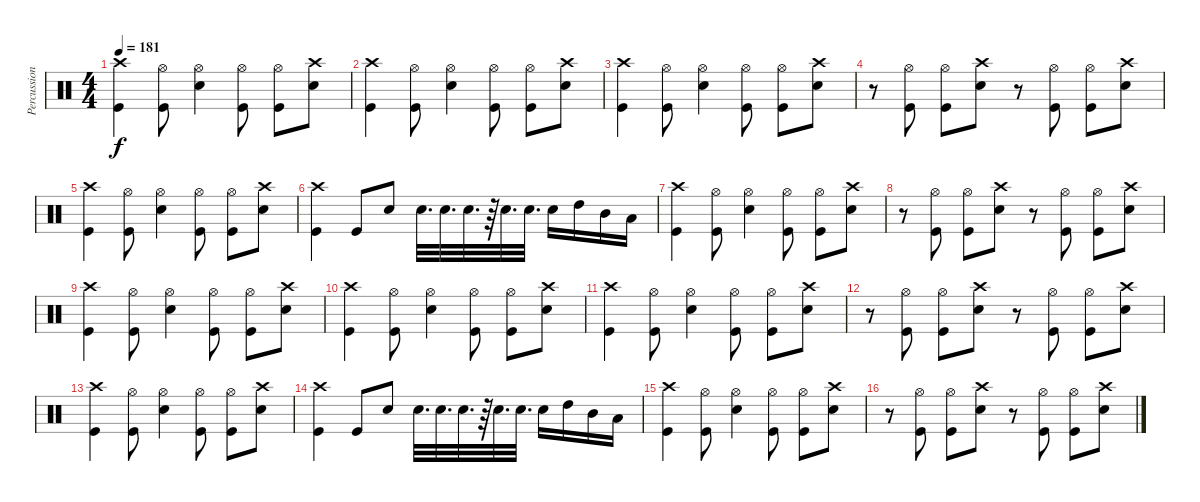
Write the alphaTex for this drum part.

\track ("Percussion" "Percussion") {instrument percussion}
\staff {score}
\articulation defaults
\ts (4 4)
\tempo 181
\clef neutral
\ks c
("Crash high (hit)" "Kick (hit)").4{dy f} ("Hi-Hat (open)" "Kick (hit)").8 ("Hi-Hat (open)" "Electric Snare (hit)").4 ("Hi-Hat (open)" "Kick (hit)").8 ("Hi-Hat (open)" "Kick (hit)").8 ("Crash high (hit)" "Electric Snare (hit)").8 |
("Crash high (hit)" "Kick (hit)").4 ("Hi-Hat (open)" "Kick (hit)").8 ("Hi-Hat (open)" "Electric Snare (hit)").4 ("Hi-Hat (open)" "Kick (hit)").8 ("Hi-Hat (open)" "Kick (hit)").8 ("Crash high (hit)" "Electric Snare (hit)").8 |
("Crash high (hit)" "Kick (hit)").4 ("Hi-Hat (open)" "Kick (hit)").8 ("Hi-Hat (open)" "Electric Snare (hit)").4 ("Hi-Hat (open)" "Kick (hit)").8 ("Hi-Hat (open)" "Kick (hit)").8 ("Crash high (hit)" "Electric Snare (hit)").8 |
r.8 ("Hi-Hat (open)" "Kick (hit)").8 ("Hi-Hat (open)" "Kick (hit)").8 ("Crash high (hit)" "Electric Snare (hit)").8 r.8 ("Hi-Hat (open)" "Kick (hit)").8 ("Hi-Hat (open)" "Kick (hit)").8 ("Crash high (hit)" "Electric Snare (hit)").8 |
("Crash high (hit)" "Kick (hit)").4 ("Hi-Hat (open)" "Kick (hit)").8 ("Hi-Hat (open)" "Electric Snare (hit)").4 ("Hi-Hat (open)" "Kick (hit)").8 ("Hi-Hat (open)" "Kick (hit)").8 ("Crash high (hit)" "Electric Snare (hit)").8 |
("Crash high (hit)" "Kick (hit)").4 "Kick (hit)".8 "Electric Snare (hit)".8 "Electric Snare (hit)".32{d} "Electric Snare (hit)".32{d} "Electric Snare (hit)".32{d} r.64 "Electric Snare (hit)".32{d} "Electric Snare (hit)".32{d} "Electric Snare (hit)".16 "High Tom (hit)".16 "Mid Tom (hit)".16 "Low Tom (hit)".16 |
("Crash high (hit)" "Kick (hit)").4 ("Hi-Hat (open)" "Kick (hit)").8 ("Hi-Hat (open)" "Electric Snare (hit)").4 ("Hi-Hat (open)" "Kick (hit)").8 ("Hi-Hat (open)" "Kick (hit)").8 ("Crash high (hit)" "Electric Snare (hit)").8 |
r.8 ("Hi-Hat (open)" "Kick (hit)").8 ("Hi-Hat (open)" "Kick (hit)").8 ("Crash high (hit)" "Electric Snare (hit)").8 r.8 ("Hi-Hat (open)" "Kick (hit)").8 ("Hi-Hat (open)" "Kick (hit)").8 ("Crash high (hit)" "Electric Snare (hit)").8 |
("Crash high (hit)" "Kick (hit)").4 ("Hi-Hat (open)" "Kick (hit)").8 ("Hi-Hat (open)" "Electric Snare (hit)").4 ("Hi-Hat (open)" "Kick (hit)").8 ("Hi-Hat (open)" "Kick (hit)").8 ("Crash high (hit)" "Electric Snare (hit)").8 |
("Crash high (hit)" "Kick (hit)").4 ("Hi-Hat (open)" "Kick (hit)").8 ("Hi-Hat (open)" "Electric Snare (hit)").4 ("Hi-Hat (open)" "Kick (hit)").8 ("Hi-Hat (open)" "Kick (hit)").8 ("Crash high (hit)" "Electric Snare (hit)").8 |
("Crash high (hit)" "Kick (hit)").4 ("Hi-Hat (open)" "Kick (hit)").8 ("Hi-Hat (open)" "Electric Snare (hit)").4 ("Hi-Hat (open)" "Kick (hit)").8 ("Hi-Hat (open)" "Kick (hit)").8 ("Crash high (hit)" "Electric Snare (hit)").8 |
r.8 ("Hi-Hat (open)" "Kick (hit)").8 ("Hi-Hat (open)" "Kick (hit)").8 ("Crash high (hit)" "Electric Snare (hit)").8 r.8 ("Hi-Hat (open)" "Kick (hit)").8 ("Hi-Hat (open)" "Kick (hit)").8 ("Crash high (hit)" "Electric Snare (hit)").8 |
("Crash high (hit)" "Kick (hit)").4 ("Hi-Hat (open)" "Kick (hit)").8 ("Hi-Hat (open)" "Electric Snare (hit)").4 ("Hi-Hat (open)" "Kick (hit)").8 ("Hi-Hat (open)" "Kick (hit)").8 ("Crash high (hit)" "Electric Snare (hit)").8 |
("Crash high (hit)" "Kick (hit)").4 "Kick (hit)".8 "Electric Snare (hit)".8 "Electric Snare (hit)".32{d} "Electric Snare (hit)".32{d} "Electric Snare (hit)".32{d} r.64 "Electric Snare (hit)".32{d} "Electric Snare (hit)".32{d} "Electric Snare (hit)".16 "High Tom (hit)".16 "Mid Tom (hit)".16 "Low Tom (hit)".16 |
("Crash high (hit)" "Kick (hit)").4 ("Hi-Hat (open)" "Kick (hit)").8 ("Hi-Hat (open)" "Electric Snare (hit)").4 ("Hi-Hat (open)" "Kick (hit)").8 ("Hi-Hat (open)" "Kick (hit)").8 ("Crash high (hit)" "Electric Snare (hit)").8 |
r.8 ("Hi-Hat (open)" "Kick (hit)").8 ("Hi-Hat (open)" "Kick (hit)").8 ("Crash high (hit)" "Electric Snare (hit)").8 r.8 ("Hi-Hat (open)" "Kick (hit)").8 ("Hi-Hat (open)" "Kick (hit)").8 ("Crash high (hit)" "Electric Snare (hit)").8
